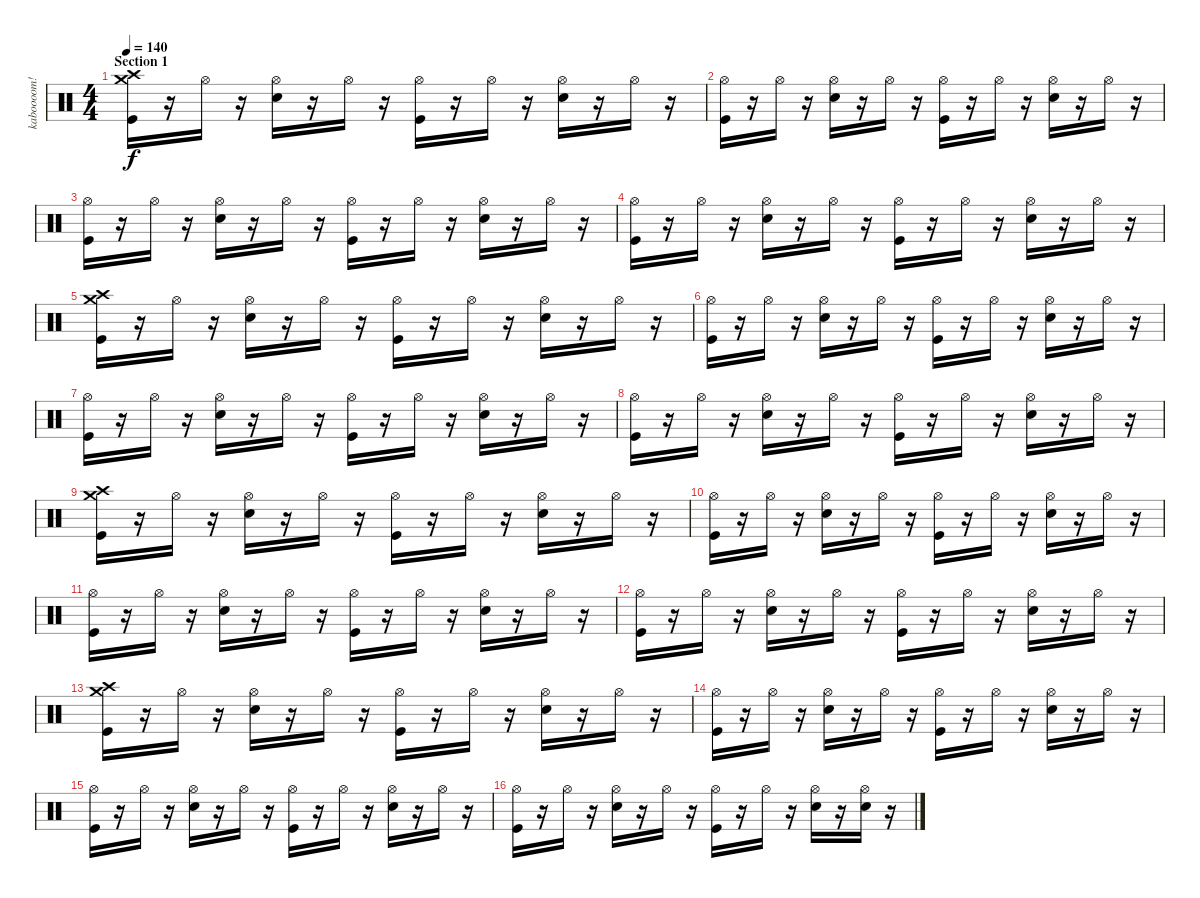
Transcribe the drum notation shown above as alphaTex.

\track ("kaboooom!" "kaboooom!") {instrument percussion}
\staff {score}
\articulation defaults
\ts (4 4)
\section ("" "Section 1")
\tempo 140
\clef neutral
\ks c
("Crash high (hit)" "Crash medium (hit)" "Kick (hit)").16{dy f} r.16 "Hi-Hat (open)".16 r.16 ("Hi-Hat (open)" "Electric Snare (hit)").16 r.16 "Hi-Hat (open)".16 r.16 ("Hi-Hat (open)" "Kick (hit)").16 r.16 "Hi-Hat (open)".16 r.16 ("Hi-Hat (open)" "Electric Snare (hit)").16 r.16 "Hi-Hat (open)".16 r.16 |
("Hi-Hat (open)" "Kick (hit)").16 r.16 "Hi-Hat (open)".16 r.16 ("Hi-Hat (open)" "Electric Snare (hit)").16 r.16 "Hi-Hat (open)".16 r.16 ("Hi-Hat (open)" "Kick (hit)").16 r.16 "Hi-Hat (open)".16 r.16 ("Hi-Hat (open)" "Electric Snare (hit)").16 r.16 "Hi-Hat (open)".16 r.16 |
("Hi-Hat (open)" "Kick (hit)").16 r.16 "Hi-Hat (open)".16 r.16 ("Hi-Hat (open)" "Electric Snare (hit)").16 r.16 "Hi-Hat (open)".16 r.16 ("Hi-Hat (open)" "Kick (hit)").16 r.16 "Hi-Hat (open)".16 r.16 ("Hi-Hat (open)" "Electric Snare (hit)").16 r.16 "Hi-Hat (open)".16 r.16 |
("Hi-Hat (open)" "Kick (hit)").16 r.16 "Hi-Hat (open)".16 r.16 ("Hi-Hat (open)" "Electric Snare (hit)").16 r.16 "Hi-Hat (open)".16 r.16 ("Hi-Hat (open)" "Kick (hit)").16 r.16 "Hi-Hat (open)".16 r.16 ("Hi-Hat (open)" "Electric Snare (hit)").16 r.16 "Hi-Hat (open)".16 r.16 |
("Crash high (hit)" "Crash medium (hit)" "Kick (hit)").16 r.16 "Hi-Hat (open)".16 r.16 ("Hi-Hat (open)" "Electric Snare (hit)").16 r.16 "Hi-Hat (open)".16 r.16 ("Hi-Hat (open)" "Kick (hit)").16 r.16 "Hi-Hat (open)".16 r.16 ("Hi-Hat (open)" "Electric Snare (hit)").16 r.16 "Hi-Hat (open)".16 r.16 |
("Hi-Hat (open)" "Kick (hit)").16 r.16 "Hi-Hat (open)".16 r.16 ("Hi-Hat (open)" "Electric Snare (hit)").16 r.16 "Hi-Hat (open)".16 r.16 ("Hi-Hat (open)" "Kick (hit)").16 r.16 "Hi-Hat (open)".16 r.16 ("Hi-Hat (open)" "Electric Snare (hit)").16 r.16 "Hi-Hat (open)".16 r.16 |
("Hi-Hat (open)" "Kick (hit)").16 r.16 "Hi-Hat (open)".16 r.16 ("Hi-Hat (open)" "Electric Snare (hit)").16 r.16 "Hi-Hat (open)".16 r.16 ("Hi-Hat (open)" "Kick (hit)").16 r.16 "Hi-Hat (open)".16 r.16 ("Hi-Hat (open)" "Electric Snare (hit)").16 r.16 "Hi-Hat (open)".16 r.16 |
("Hi-Hat (open)" "Kick (hit)").16 r.16 "Hi-Hat (open)".16 r.16 ("Hi-Hat (open)" "Electric Snare (hit)").16 r.16 "Hi-Hat (open)".16 r.16 ("Hi-Hat (open)" "Kick (hit)").16 r.16 "Hi-Hat (open)".16 r.16 ("Hi-Hat (open)" "Electric Snare (hit)").16 r.16 "Hi-Hat (open)".16 r.16 |
("Crash high (hit)" "Crash medium (hit)" "Kick (hit)").16 r.16 "Hi-Hat (open)".16 r.16 ("Hi-Hat (open)" "Electric Snare (hit)").16 r.16 "Hi-Hat (open)".16 r.16 ("Hi-Hat (open)" "Kick (hit)").16 r.16 "Hi-Hat (open)".16 r.16 ("Hi-Hat (open)" "Electric Snare (hit)").16 r.16 "Hi-Hat (open)".16 r.16 |
("Hi-Hat (open)" "Kick (hit)").16 r.16 "Hi-Hat (open)".16 r.16 ("Hi-Hat (open)" "Electric Snare (hit)").16 r.16 "Hi-Hat (open)".16 r.16 ("Hi-Hat (open)" "Kick (hit)").16 r.16 "Hi-Hat (open)".16 r.16 ("Hi-Hat (open)" "Electric Snare (hit)").16 r.16 "Hi-Hat (open)".16 r.16 |
("Hi-Hat (open)" "Kick (hit)").16 r.16 "Hi-Hat (open)".16 r.16 ("Hi-Hat (open)" "Electric Snare (hit)").16 r.16 "Hi-Hat (open)".16 r.16 ("Hi-Hat (open)" "Kick (hit)").16 r.16 "Hi-Hat (open)".16 r.16 ("Hi-Hat (open)" "Electric Snare (hit)").16 r.16 "Hi-Hat (open)".16 r.16 |
("Hi-Hat (open)" "Kick (hit)").16 r.16 "Hi-Hat (open)".16 r.16 ("Hi-Hat (open)" "Electric Snare (hit)").16 r.16 "Hi-Hat (open)".16 r.16 ("Hi-Hat (open)" "Kick (hit)").16 r.16 "Hi-Hat (open)".16 r.16 ("Hi-Hat (open)" "Electric Snare (hit)").16 r.16 "Hi-Hat (open)".16 r.16 |
("Crash high (hit)" "Crash medium (hit)" "Kick (hit)").16 r.16 "Hi-Hat (open)".16 r.16 ("Hi-Hat (open)" "Electric Snare (hit)").16 r.16 "Hi-Hat (open)".16 r.16 ("Hi-Hat (open)" "Kick (hit)").16 r.16 "Hi-Hat (open)".16 r.16 ("Hi-Hat (open)" "Electric Snare (hit)").16 r.16 "Hi-Hat (open)".16 r.16 |
("Hi-Hat (open)" "Kick (hit)").16 r.16 "Hi-Hat (open)".16 r.16 ("Hi-Hat (open)" "Electric Snare (hit)").16 r.16 "Hi-Hat (open)".16 r.16 ("Hi-Hat (open)" "Kick (hit)").16 r.16 "Hi-Hat (open)".16 r.16 ("Hi-Hat (open)" "Electric Snare (hit)").16 r.16 "Hi-Hat (open)".16 r.16 |
("Hi-Hat (open)" "Kick (hit)").16 r.16 "Hi-Hat (open)".16 r.16 ("Hi-Hat (open)" "Electric Snare (hit)").16 r.16 "Hi-Hat (open)".16 r.16 ("Hi-Hat (open)" "Kick (hit)").16 r.16 "Hi-Hat (open)".16 r.16 ("Hi-Hat (open)" "Electric Snare (hit)").16 r.16 "Hi-Hat (open)".16 r.16 |
("Hi-Hat (open)" "Kick (hit)").16 r.16 "Hi-Hat (open)".16 r.16 ("Hi-Hat (open)" "Electric Snare (hit)").16 r.16 "Hi-Hat (open)".16 r.16 ("Hi-Hat (open)" "Kick (hit)").16 r.16 "Hi-Hat (open)".16 r.16 ("Hi-Hat (open)" "Electric Snare (hit)").16 r.16 ("Hi-Hat (open)" "Electric Snare (hit)").16 r.16
